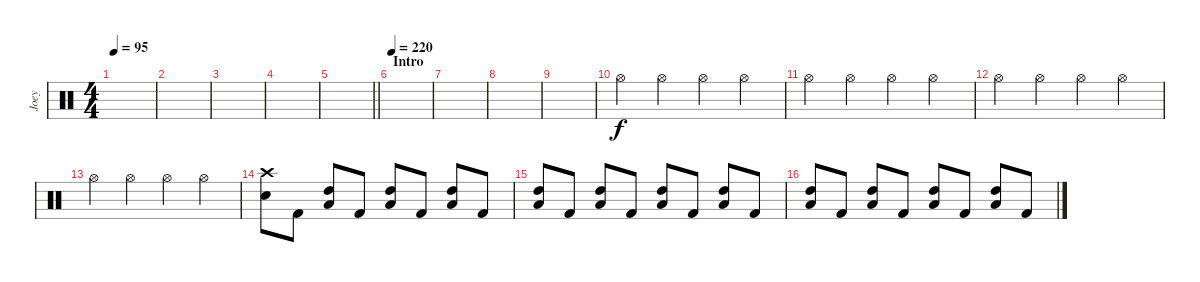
\track ("Joey" "Joey") {instrument percussion}
\staff {score}
\articulation defaults
\ts (4 4)
\tempo 95
\clef neutral
\ks c
|
|
|
|
\barLineRight lightlight
|
\section ("" "Intro")
\tempo 220
|
|
|
|
"Hi-Hat (open)".4 "Hi-Hat (open)".4 "Hi-Hat (open)".4 "Hi-Hat (open)".4 |
"Hi-Hat (open)".4 "Hi-Hat (open)".4 "Hi-Hat (open)".4 "Hi-Hat (open)".4 |
"Hi-Hat (open)".4 "Hi-Hat (open)".4 "Hi-Hat (open)".4 "Hi-Hat (open)".4 |
"Hi-Hat (open)".4 "Hi-Hat (open)".4 "Hi-Hat (open)".4 "Hi-Hat (open)".4 |
("Crash high (hit)" "Electric Snare (hit)").8 "Kick (hit) 2".8 ("High Tom (hit)" "Low Floor Tom (hit)").8 "Kick (hit) 2".8 ("High Tom (hit)" "Low Floor Tom (hit)").8 "Kick (hit) 2".8 ("High Tom (hit)" "Low Floor Tom (hit)").8 "Kick (hit) 2".8 |
("High Tom (hit)" "Low Floor Tom (hit)").8 "Kick (hit) 2".8 ("High Tom (hit)" "Low Floor Tom (hit)").8 "Kick (hit) 2".8 ("High Tom (hit)" "Low Floor Tom (hit)").8 "Kick (hit) 2".8 ("High Tom (hit)" "Low Floor Tom (hit)").8 "Kick (hit) 2".8 |
("High Tom (hit)" "Low Floor Tom (hit)").8 "Kick (hit) 2".8 ("High Tom (hit)" "Low Floor Tom (hit)").8 "Kick (hit) 2".8 ("High Tom (hit)" "Low Floor Tom (hit)").8 "Kick (hit) 2".8 ("High Tom (hit)" "Low Floor Tom (hit)").8 "Kick (hit) 2".8
